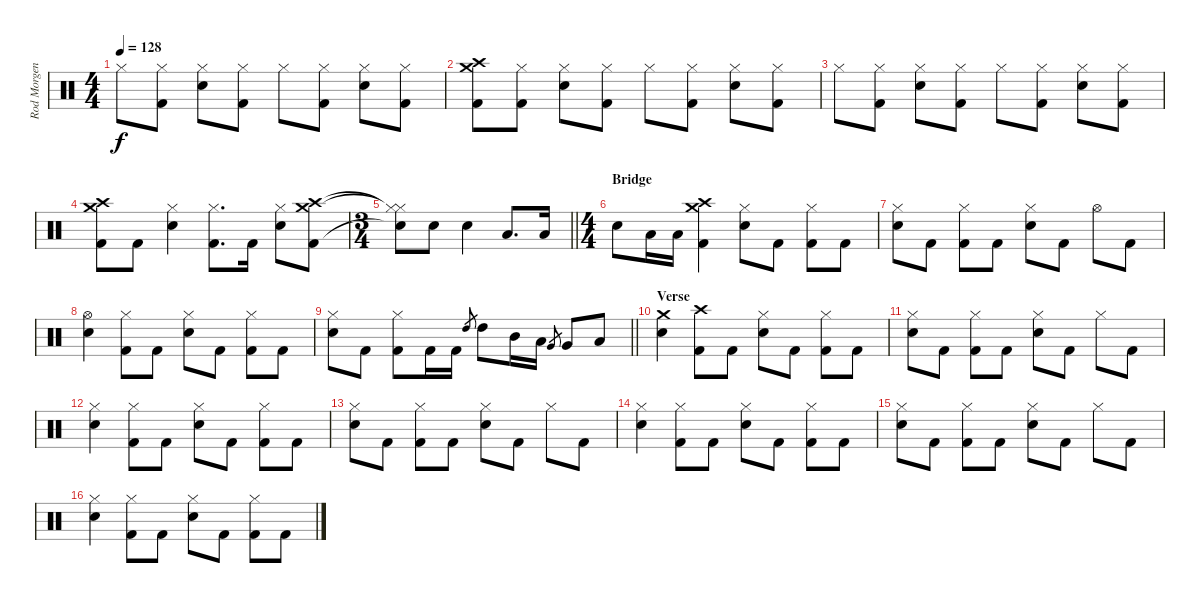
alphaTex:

\track ("Rod Morgenstein" "Rod Morgen") {instrument percussion}
\staff {score}
\articulation defaults
\ts (4 4)
\tempo 128
\clef neutral
\ks c "Hi-Hat (closed)".8{dy f}
("Hi-Hat (closed)" "Kick (hit) 2").8 ("Hi-Hat (closed)" "Snare (hit) 2").8 ("Hi-Hat (closed)" "Kick (hit) 2").8 "Hi-Hat (closed)".8 ("Hi-Hat (closed)" "Kick (hit) 2").8 ("Hi-Hat (closed)" "Snare (hit) 2").8 ("Hi-Hat (closed)" "Kick (hit) 2").8 |
("Crash medium (hit)" "Crash high (hit)" "Kick (hit) 2").8 ("Hi-Hat (closed)" "Kick (hit) 2").8 ("Hi-Hat (closed)" "Snare (hit) 2").8 ("Hi-Hat (closed)" "Kick (hit) 2").8 "Hi-Hat (closed)".8 ("Hi-Hat (closed)" "Kick (hit) 2").8 ("Hi-Hat (closed)" "Snare (hit) 2").8 ("Hi-Hat (closed)" "Kick (hit) 2").8 |
"Hi-Hat (closed)".8 ("Hi-Hat (closed)" "Kick (hit) 2").8 ("Hi-Hat (closed)" "Snare (hit) 2").8 ("Hi-Hat (closed)" "Kick (hit) 2").8 "Hi-Hat (closed)".8 ("Hi-Hat (closed)" "Kick (hit) 2").8 ("Hi-Hat (closed)" "Snare (hit) 2").8 ("Hi-Hat (closed)" "Kick (hit) 2").8 |
("Crash medium (hit)" "Crash high (hit)" "Kick (hit) 2").8 "Kick (hit) 2".8 ("Hi-Hat (closed)" "Snare (hit) 2").4 ("Hi-Hat (closed)" "Kick (hit) 2").8{d} "Kick (hit) 2".16 ("Hi-Hat (closed)" "Snare (hit) 2").8 ("Crash medium (hit)" "Crash high (hit)" "Kick (hit) 2").8 |
\ts (3 4)
\barLineRight lightlight
("Hi-Hat (closed)"{t} "Hi-Hat (closed)"{t} "Snare (hit)"{t}).8 "Snare (hit) 2".8 "Snare (hit) 2".4 "Low Floor Tom (hit)".8{d} "Low Floor Tom (hit)".16 |
\ts (4 4)
\section ("" "Bridge")
"Snare (hit) 2".8 "Low Floor Tom (hit)".16 "Low Floor Tom (hit)".16 ("Crash medium (hit)" "Crash high (hit)" "Kick (hit) 2").4 ("Hi-Hat (closed)" "Snare (hit) 2").8 "Kick (hit) 2".8 ("Hi-Hat (closed)" "Kick (hit) 2").8 "Kick (hit) 2".8 |
("Hi-Hat (closed)" "Snare (hit) 2").8 "Kick (hit) 2".8 ("Hi-Hat (closed)" "Kick (hit) 2").8 "Kick (hit) 2".8 ("Hi-Hat (closed)" "Snare (hit) 2").8 "Kick (hit) 2".8 "Hi-Hat (open)".8 "Kick (hit) 2".8 |
("Hi-Hat (open)" "Snare (hit) 2").4 ("Hi-Hat (closed)" "Kick (hit) 2").8 "Kick (hit) 2".8 ("Hi-Hat (closed)" "Snare (hit) 2").8 "Kick (hit) 2".8 ("Hi-Hat (closed)" "Kick (hit) 2").8 "Kick (hit) 2".8 |
\barLineRight lightlight
("Hi-Hat (closed)" "Snare (hit) 2").8 "Kick (hit) 2".8 ("Hi-Hat (closed)" "Kick (hit) 2").8 "Kick (hit) 2".16 "Kick (hit) 2".16 "High Tom (hit)".8{gr} "High Tom (hit)".8 "Mid Tom (hit)".16 "Low Tom (hit)".16 "Very Low Tom (hit)".8{gr} "Very Low Tom (hit)".8 "Low Floor Tom (hit)".8 |
\section ("" "Verse")
("Crash medium (hit)" "Snare (hit) 2").4 ("Crash high (hit)" "Kick (hit) 2").8 "Kick (hit) 2".8 ("Hi-Hat (closed)" "Snare (hit) 2").8 "Kick (hit) 2".8 ("Hi-Hat (closed)" "Kick (hit) 2").8 "Kick (hit) 2".8 |
("Hi-Hat (closed)" "Snare (hit) 2").8 "Kick (hit) 2".8 ("Hi-Hat (closed)" "Kick (hit) 2").8 "Kick (hit) 2".8 ("Hi-Hat (closed)" "Snare (hit) 2").8 "Kick (hit) 2".8 "Hi-Hat (closed)".8 "Kick (hit) 2".8 |
("Hi-Hat (closed)" "Snare (hit) 2").4 ("Hi-Hat (closed)" "Kick (hit) 2").8 "Kick (hit) 2".8 ("Hi-Hat (closed)" "Snare (hit) 2").8 "Kick (hit) 2".8 ("Hi-Hat (closed)" "Kick (hit) 2").8 "Kick (hit) 2".8 |
("Hi-Hat (closed)" "Snare (hit) 2").8 "Kick (hit) 2".8 ("Hi-Hat (closed)" "Kick (hit) 2").8 "Kick (hit) 2".8 ("Hi-Hat (closed)" "Snare (hit) 2").8 "Kick (hit) 2".8 "Hi-Hat (closed)".8 "Kick (hit) 2".8 |
("Hi-Hat (closed)" "Snare (hit) 2").4 ("Hi-Hat (closed)" "Kick (hit) 2").8 "Kick (hit) 2".8 ("Hi-Hat (closed)" "Snare (hit) 2").8 "Kick (hit) 2".8 ("Hi-Hat (closed)" "Kick (hit) 2").8 "Kick (hit) 2".8 |
("Hi-Hat (closed)" "Snare (hit) 2").8 "Kick (hit) 2".8 ("Hi-Hat (closed)" "Kick (hit) 2").8 "Kick (hit) 2".8 ("Hi-Hat (closed)" "Snare (hit) 2").8 "Kick (hit) 2".8 "Hi-Hat (closed)".8 "Kick (hit) 2".8 |
("Hi-Hat (closed)" "Snare (hit) 2").4 ("Hi-Hat (closed)" "Kick (hit) 2").8 "Kick (hit) 2".8 ("Hi-Hat (closed)" "Snare (hit) 2").8 "Kick (hit) 2".8 ("Hi-Hat (closed)" "Kick (hit) 2").8 "Kick (hit) 2".8
